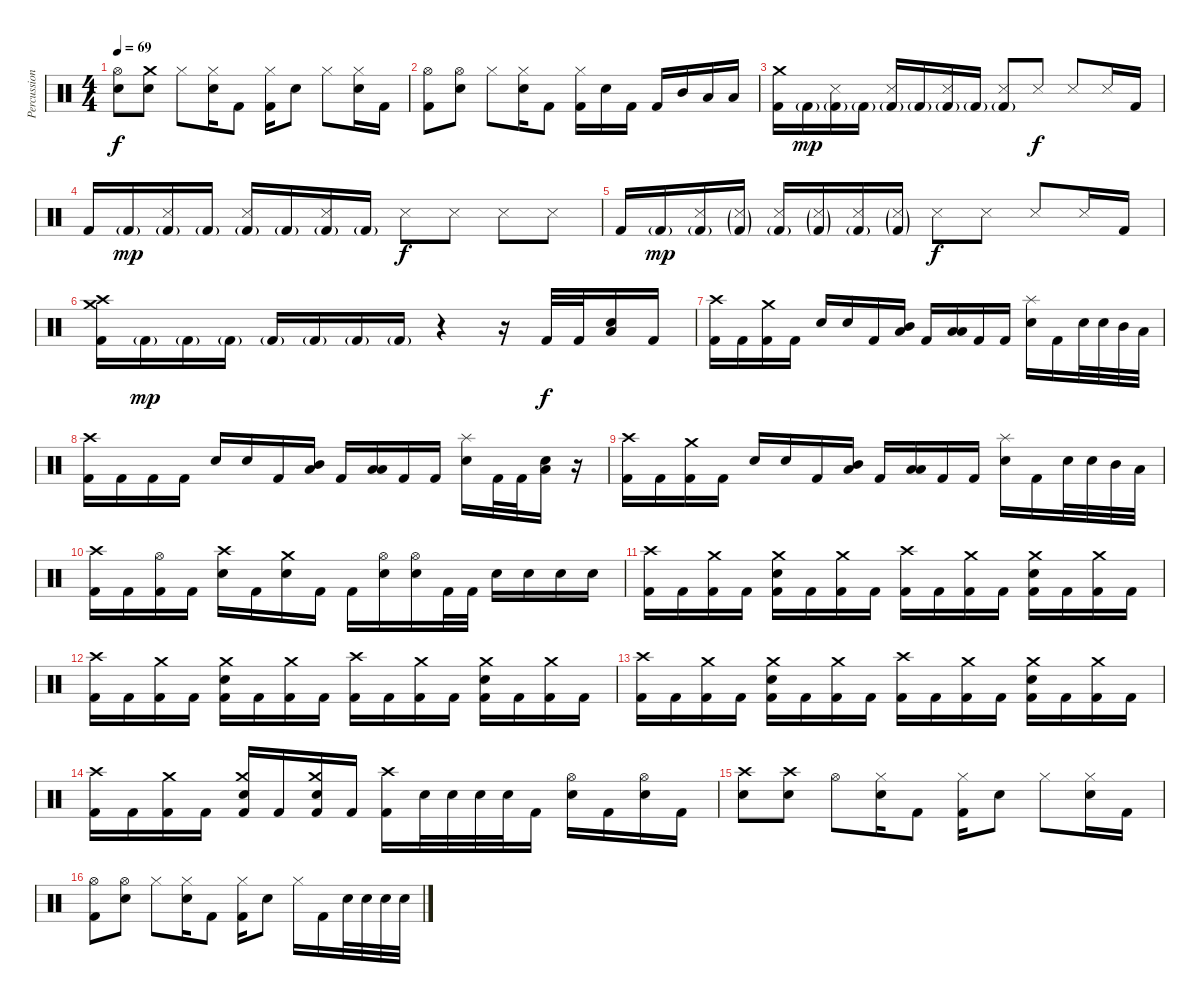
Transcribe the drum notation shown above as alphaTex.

\track ("Percussion" "Percussion") {instrument percussion}
\staff {score}
\articulation defaults
\ts (4 4)
\tempo 69
\clef neutral
\ks c
("Hi-Hat (open)" "Electric Snare (hit)").8{dy f} ("Crash medium (hit)" "Electric Snare (hit)").8 "Hi-Hat (closed)".8 ("Hi-Hat (closed)" "Electric Snare (hit)").16 "Kick (hit) 2".8 ("Hi-Hat (closed)" "Kick (hit) 2").16 "Electric Snare (hit)".8 "Hi-Hat (closed)".8 ("Hi-Hat (closed)" "Electric Snare (hit)").16 "Kick (hit) 2".16 |
("Hi-Hat (open)" "Kick (hit) 2").8 ("Hi-Hat (open)" "Electric Snare (hit)").8 "Hi-Hat (closed)".8 ("Hi-Hat (closed)" "Electric Snare (hit)").16 "Kick (hit) 2".8 ("Hi-Hat (closed)" "Kick (hit) 2").16 "Electric Snare (hit)".16 "Kick (hit) 2".16 "Kick (hit) 2".16 "Mid Tom (hit)".16 "Low Tom (hit)".16 "Low Floor Tom (hit)".16 |
("Crash medium (hit)" "Kick (hit) 2").16 "Kick (hit) 2"{g}.16{dy mp} ("Metronome (hit)" "Kick (hit) 2"{g}).16 "Kick (hit) 2"{g}.16 ("Metronome (hit)" "Kick (hit) 2"{g}).16 "Kick (hit) 2"{g}.16 ("Metronome (hit)" "Kick (hit) 2"{g}).16 "Kick (hit) 2"{g}.16 ("Metronome (hit)" "Kick (hit) 2"{g}).8 "Metronome (hit)".8{dy f} "Metronome (hit)".8 "Metronome (hit)".16 "Kick (hit) 2".16 |
"Kick (hit) 2".16 "Kick (hit) 2"{g}.16{dy mp} ("Metronome (hit)" "Kick (hit) 2"{g}).16 "Kick (hit) 2"{g}.16 ("Metronome (hit)" "Kick (hit) 2"{g}).16 "Kick (hit) 2"{g}.16 ("Metronome (hit)" "Kick (hit) 2"{g}).16 "Kick (hit) 2"{g}.16 "Metronome (hit)".8{dy f} "Metronome (hit)".8 "Metronome (hit)".8 "Metronome (hit)".8 |
"Kick (hit) 2".16 "Kick (hit) 2"{g}.16{dy mp} ("Metronome (hit)" "Kick (hit) 2"{g}).16 ("Metronome (hit)"{g} "Kick (hit) 2"{g}).16 ("Metronome (hit)" "Kick (hit) 2"{g}).16 ("Metronome (hit)"{g} "Kick (hit) 2"{g}).16 ("Metronome (hit)" "Kick (hit) 2"{g}).16 ("Metronome (hit)"{g} "Kick (hit) 2"{g}).16 "Metronome (hit)".8{dy f} "Metronome (hit)".8 "Metronome (hit)".8 "Metronome (hit)".16 "Kick (hit) 2".16 |
("Crash high (hit)" "Crash medium (hit)" "Kick (hit) 2").16 "Kick (hit) 2"{g}.16{dy mp} "Kick (hit) 2"{g}.16 "Kick (hit) 2"{g}.16 "Kick (hit) 2"{g}.16 "Kick (hit) 2"{g}.16 "Kick (hit) 2"{g}.16 "Kick (hit) 2"{g}.16 r.4 r.16 "Kick (hit) 2".32{dy f} "Kick (hit) 2".32 ("Low Floor Tom (hit)" "Electric Snare (hit)").16 "Kick (hit) 2".16 |
("Crash high (hit)" "Kick (hit) 2").16 "Kick (hit) 2".16 ("Crash medium (hit)" "Kick (hit) 2").16 "Kick (hit) 2".16 "Electric Snare (hit)".16 "Electric Snare (hit)".16 "Kick (hit) 2".16 ("Low Floor Tom (hit)" "Mid Tom (hit)").16 "Kick (hit) 2".16 ("Low Floor Tom (hit)" "Low Tom (hit)").16 "Kick (hit) 2".16 "Kick (hit) 2".16 ("Splash (hit)" "Electric Snare (hit)").16 "Kick (hit) 2".16 "Electric Snare (hit)".32 "Electric Snare (hit)".32 "Mid Tom (hit)".32 "Low Tom (hit)".32 |
("Crash high (hit)" "Kick (hit) 2").16 "Kick (hit) 2".16 "Kick (hit) 2".16 "Kick (hit) 2".16 "Electric Snare (hit)".16 "Electric Snare (hit)".16 "Kick (hit) 2".16 ("Low Floor Tom (hit)" "Mid Tom (hit)").16 "Kick (hit) 2".16 ("Low Floor Tom (hit)" "Low Tom (hit)").16 "Kick (hit) 2".16 "Kick (hit) 2".16 ("Splash (hit)" "Electric Snare (hit)").16 "Kick (hit) 2".32 "Kick (hit) 2".32 ("Low Floor Tom (hit)" "Electric Snare (hit)").16 r.16 |
("Crash high (hit)" "Kick (hit) 2").16 "Kick (hit) 2".16 ("Crash medium (hit)" "Kick (hit) 2").16 "Kick (hit) 2".16 "Electric Snare (hit)".16 "Electric Snare (hit)".16 "Kick (hit) 2".16 ("Low Floor Tom (hit)" "Mid Tom (hit)").16 "Kick (hit) 2".16 ("Low Floor Tom (hit)" "Low Tom (hit)").16 "Kick (hit) 2".16 "Kick (hit) 2".16 ("Splash (hit)" "Electric Snare (hit)").16 "Kick (hit) 2".16 "Electric Snare (hit)".32 "Electric Snare (hit)".32 "Mid Tom (hit)".32 "Low Tom (hit)".32 |
("Crash high (hit)" "Kick (hit) 2").16 "Kick (hit) 2".16 ("Hi-Hat (open)" "Kick (hit) 2").16 "Kick (hit) 2".16 ("Crash high (hit)" "Electric Snare (hit)").16 "Kick (hit) 2".16 ("Crash medium (hit)" "Electric Snare (hit)").16 "Kick (hit) 2".16 "Kick (hit) 2".16 ("Hi-Hat (open)" "Electric Snare (hit)").16 ("Hi-Hat (open)" "Electric Snare (hit)").16 "Kick (hit) 2".32 "Kick (hit) 2".32 "Electric Snare (hit)".16 "Electric Snare (hit)".16 "Electric Snare (hit)".16 "Electric Snare (hit)".16 |
("Crash high (hit)" "Kick (hit) 2").16 "Kick (hit) 2".16 ("Crash medium (hit)" "Kick (hit) 2").16 "Kick (hit) 2".16 ("Crash medium (hit)" "Electric Snare (hit)" "Kick (hit) 2").16 "Kick (hit) 2".16 ("Crash medium (hit)" "Kick (hit) 2").16 "Kick (hit) 2".16 ("Crash high (hit)" "Kick (hit) 2").16 "Kick (hit) 2".16 ("Crash medium (hit)" "Kick (hit) 2").16 "Kick (hit) 2".16 ("Crash medium (hit)" "Electric Snare (hit)" "Kick (hit) 2").16 "Kick (hit) 2".16 ("Crash medium (hit)" "Kick (hit) 2").16 "Kick (hit) 2".16 |
("Crash high (hit)" "Kick (hit) 2").16 "Kick (hit) 2".16 ("Crash medium (hit)" "Kick (hit) 2").16 "Kick (hit) 2".16 ("Crash medium (hit)" "Electric Snare (hit)" "Kick (hit) 2").16 "Kick (hit) 2".16 ("Crash medium (hit)" "Kick (hit) 2").16 "Kick (hit) 2".16 ("Crash high (hit)" "Kick (hit) 2").16 "Kick (hit) 2".16 ("Crash medium (hit)" "Kick (hit) 2").16 "Kick (hit) 2".16 ("Crash medium (hit)" "Electric Snare (hit)" "Kick (hit) 2").16 "Kick (hit) 2".16 ("Crash medium (hit)" "Kick (hit) 2").16 "Kick (hit) 2".16 |
("Crash high (hit)" "Kick (hit) 2").16 "Kick (hit) 2".16 ("Crash medium (hit)" "Kick (hit) 2").16 "Kick (hit) 2".16 ("Crash medium (hit)" "Electric Snare (hit)" "Kick (hit) 2").16 "Kick (hit) 2".16 ("Crash medium (hit)" "Kick (hit) 2").16 "Kick (hit) 2".16 ("Crash high (hit)" "Kick (hit) 2").16 "Kick (hit) 2".16 ("Crash medium (hit)" "Kick (hit) 2").16 "Kick (hit) 2".16 ("Crash medium (hit)" "Electric Snare (hit)" "Kick (hit) 2").16 "Kick (hit) 2".16 ("Crash medium (hit)" "Kick (hit) 2").16 "Kick (hit) 2".16 |
("Crash high (hit)" "Kick (hit) 2").16 "Kick (hit) 2".16 ("Crash medium (hit)" "Kick (hit) 2").16 "Kick (hit) 2".16 ("Crash medium (hit)" "Electric Snare (hit)" "Kick (hit) 2").16 "Kick (hit) 2".16 ("Crash medium (hit)" "Electric Snare (hit)" "Kick (hit) 2").16 "Kick (hit) 2".16 ("Crash high (hit)" "Kick (hit) 2").16 "Electric Snare (hit)".32 "Electric Snare (hit)".32 "Electric Snare (hit)".32 "Electric Snare (hit)".32 "Kick (hit) 2".16 ("Hi-Hat (open)" "Electric Snare (hit)").16 "Kick (hit) 2".16 ("Hi-Hat (open)" "Electric Snare (hit)").16 "Kick (hit) 2".16 |
("Crash high (hit)" "Electric Snare (hit)").8 ("Crash high (hit)" "Electric Snare (hit)").8 "Hi-Hat (open)".8 ("Hi-Hat (closed)" "Electric Snare (hit)").16 "Kick (hit) 2".8 ("Hi-Hat (closed)" "Kick (hit) 2").16 "Electric Snare (hit)".8 "Hi-Hat (closed)".8 ("Hi-Hat (closed)" "Electric Snare (hit)").16 "Kick (hit) 2".16 |
("Hi-Hat (open)" "Kick (hit) 2").8 ("Hi-Hat (open)" "Electric Snare (hit)").8 "Hi-Hat (closed)".8 ("Hi-Hat (closed)" "Electric Snare (hit)").16 "Kick (hit) 2".8 ("Hi-Hat (closed)" "Kick (hit) 2").16 "Electric Snare (hit)".8 "Hi-Hat (closed)".16 "Kick (hit) 2".16 "Electric Snare (hit)".32 "Electric Snare (hit)".32 "Electric Snare (hit)".32 "Electric Snare (hit)".32
